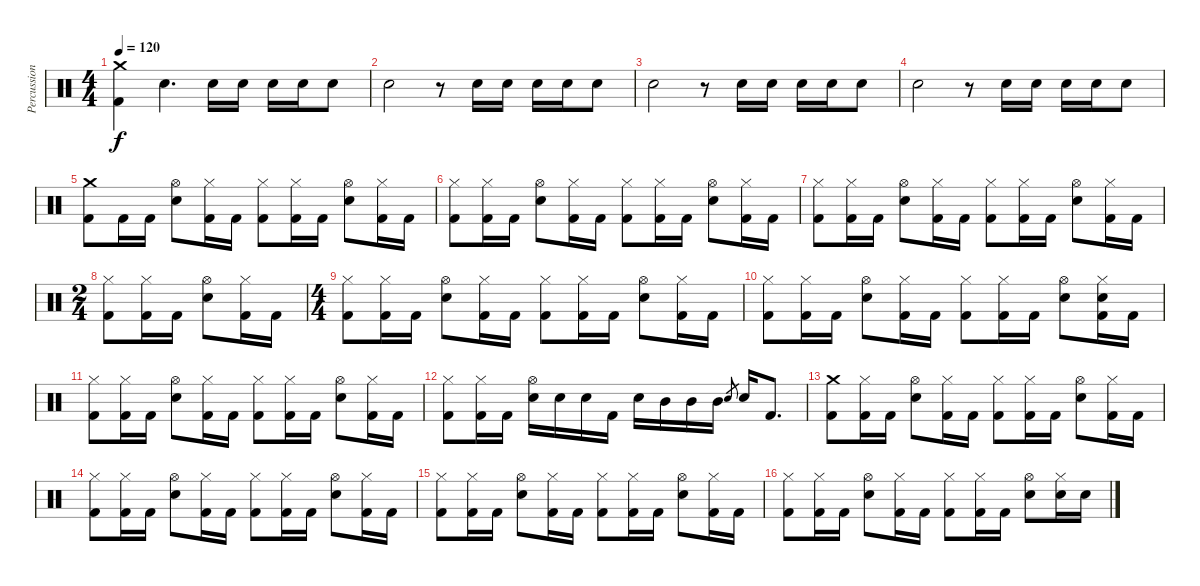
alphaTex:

\track ("Percussions" "Percussion") {instrument percussion}
\staff {score}
\articulation defaults
\ts (4 4)
\tempo 120
\clef neutral
\ks c
("Crash medium (hit)" "Kick (hit) 2").4{dy f} "Electric Snare (hit)".4{d} "Electric Snare (hit)".16 "Electric Snare (hit)".16 "Electric Snare (hit)".16 "Electric Snare (hit)".16 "Electric Snare (hit)".8 |
"Electric Snare (hit)".2 r.8 "Electric Snare (hit)".16 "Electric Snare (hit)".16 "Electric Snare (hit)".16 "Electric Snare (hit)".16 "Electric Snare (hit)".8 |
"Electric Snare (hit)".2 r.8 "Electric Snare (hit)".16 "Electric Snare (hit)".16 "Electric Snare (hit)".16 "Electric Snare (hit)".16 "Electric Snare (hit)".8 |
"Electric Snare (hit)".2 r.8 "Electric Snare (hit)".16 "Electric Snare (hit)".16 "Electric Snare (hit)".16 "Electric Snare (hit)".16 "Electric Snare (hit)".8 |
("Crash medium (hit)" "Kick (hit) 2").8 "Kick (hit) 2".16 "Kick (hit) 2".16 ("Hi-Hat (open)" "Electric Snare (hit)").8 ("Hi-Hat (closed)" "Kick (hit) 2").16 "Kick (hit) 2".16 ("Hi-Hat (closed)" "Kick (hit) 2").8 ("Hi-Hat (closed)" "Kick (hit) 2").16 "Kick (hit) 2".16 ("Hi-Hat (open)" "Electric Snare (hit)").8 ("Hi-Hat (closed)" "Kick (hit) 2").16 "Kick (hit) 2".16 |
("Hi-Hat (closed)" "Kick (hit) 2").8 ("Hi-Hat (closed)" "Kick (hit) 2").16 "Kick (hit) 2".16 ("Hi-Hat (open)" "Electric Snare (hit)").8 ("Hi-Hat (closed)" "Kick (hit) 2").16 "Kick (hit) 2".16 ("Hi-Hat (closed)" "Kick (hit) 2").8 ("Hi-Hat (closed)" "Kick (hit) 2").16 "Kick (hit) 2".16 ("Hi-Hat (open)" "Electric Snare (hit)").8 ("Hi-Hat (closed)" "Kick (hit) 2").16 "Kick (hit) 2".16 |
("Hi-Hat (closed)" "Kick (hit) 2").8 ("Hi-Hat (closed)" "Kick (hit) 2").16 "Kick (hit) 2".16 ("Hi-Hat (open)" "Electric Snare (hit)").8 ("Hi-Hat (closed)" "Kick (hit) 2").16 "Kick (hit) 2".16 ("Hi-Hat (closed)" "Kick (hit) 2").8 ("Hi-Hat (closed)" "Kick (hit) 2").16 "Kick (hit) 2".16 ("Hi-Hat (open)" "Electric Snare (hit)").8 ("Hi-Hat (closed)" "Kick (hit) 2").16 "Kick (hit) 2".16 |
\ts (2 4)
("Hi-Hat (closed)" "Kick (hit) 2").8 ("Hi-Hat (closed)" "Kick (hit) 2").16 "Kick (hit) 2".16 ("Hi-Hat (open)" "Electric Snare (hit)").8 ("Hi-Hat (closed)" "Kick (hit) 2").16 "Kick (hit) 2".16 |
\ts (4 4)
("Hi-Hat (closed)" "Kick (hit) 2").8 ("Hi-Hat (closed)" "Kick (hit) 2").16 "Kick (hit) 2".16 ("Hi-Hat (open)" "Electric Snare (hit)").8 ("Hi-Hat (closed)" "Kick (hit) 2").16 "Kick (hit) 2".16 ("Hi-Hat (closed)" "Kick (hit) 2").8 ("Hi-Hat (closed)" "Kick (hit) 2").16 "Kick (hit) 2".16 ("Hi-Hat (open)" "Electric Snare (hit)").8 ("Hi-Hat (closed)" "Kick (hit) 2").16 "Kick (hit) 2".16 |
("Hi-Hat (closed)" "Kick (hit) 2").8 ("Hi-Hat (closed)" "Kick (hit) 2").16 "Kick (hit) 2".16 ("Hi-Hat (open)" "Electric Snare (hit)").8 ("Hi-Hat (closed)" "Kick (hit) 2").16 "Kick (hit) 2".16 ("Hi-Hat (closed)" "Kick (hit) 2").8 ("Hi-Hat (closed)" "Kick (hit) 2").16 "Kick (hit) 2".16 ("Hi-Hat (open)" "Electric Snare (hit)").8 ("Hi-Hat (closed)" "Electric Snare (hit)" "Kick (hit) 2").16 "Kick (hit) 2".16 |
("Hi-Hat (closed)" "Kick (hit) 2").8 ("Hi-Hat (closed)" "Kick (hit) 2").16 "Kick (hit) 2".16 ("Hi-Hat (open)" "Electric Snare (hit)").8 ("Hi-Hat (closed)" "Kick (hit) 2").16 "Kick (hit) 2".16 ("Hi-Hat (closed)" "Kick (hit) 2").8 ("Hi-Hat (closed)" "Kick (hit) 2").16 "Kick (hit) 2".16 ("Hi-Hat (open)" "Electric Snare (hit)").8 ("Hi-Hat (closed)" "Kick (hit) 2").16 "Kick (hit) 2".16 |
("Hi-Hat (closed)" "Kick (hit) 2").8 ("Hi-Hat (closed)" "Kick (hit) 2").16 "Kick (hit) 2".16 ("Hi-Hat (open)" "Electric Snare (hit)").16 "Electric Snare (hit)".16 "Electric Snare (hit)".16 "Kick (hit) 2".16 "Electric Snare (hit)".16 "Mid Tom (hit)".16 "Mid Tom (hit)".16 "Mid Tom (hit)".16 "Electric Snare (hit)".8{gr} "Electric Snare (hit)".16 "Kick (hit) 2".8{d} |
("Crash medium (hit)" "Kick (hit) 2").8 ("Hi-Hat (closed)" "Kick (hit) 2").16 "Kick (hit) 2".16 ("Hi-Hat (open)" "Electric Snare (hit)").8 ("Hi-Hat (closed)" "Kick (hit) 2").16 "Kick (hit) 2".16 ("Hi-Hat (closed)" "Kick (hit) 2").8 ("Hi-Hat (closed)" "Kick (hit) 2").16 "Kick (hit) 2".16 ("Hi-Hat (open)" "Electric Snare (hit)").8 ("Hi-Hat (closed)" "Kick (hit) 2").16 "Kick (hit) 2".16 |
("Hi-Hat (closed)" "Kick (hit) 2").8 ("Hi-Hat (closed)" "Kick (hit) 2").16 "Kick (hit) 2".16 ("Hi-Hat (open)" "Electric Snare (hit)").8 ("Hi-Hat (closed)" "Kick (hit) 2").16 "Kick (hit) 2".16 ("Hi-Hat (closed)" "Kick (hit) 2").8 ("Hi-Hat (closed)" "Kick (hit) 2").16 "Kick (hit) 2".16 ("Hi-Hat (open)" "Electric Snare (hit)").8 ("Hi-Hat (closed)" "Kick (hit) 2").16 "Kick (hit) 2".16 |
("Hi-Hat (closed)" "Kick (hit) 2").8 ("Hi-Hat (closed)" "Kick (hit) 2").16 "Kick (hit) 2".16 ("Hi-Hat (open)" "Electric Snare (hit)").8 ("Hi-Hat (closed)" "Kick (hit) 2").16 "Kick (hit) 2".16 ("Hi-Hat (closed)" "Kick (hit) 2").8 ("Hi-Hat (closed)" "Kick (hit) 2").16 "Kick (hit) 2".16 ("Hi-Hat (open)" "Electric Snare (hit)").8 ("Hi-Hat (closed)" "Kick (hit) 2").16 "Kick (hit) 2".16 |
("Hi-Hat (closed)" "Kick (hit) 2").8 ("Hi-Hat (closed)" "Kick (hit) 2").16 "Kick (hit) 2".16 ("Hi-Hat (open)" "Electric Snare (hit)").8 ("Hi-Hat (closed)" "Kick (hit) 2").16 "Kick (hit) 2".16 ("Hi-Hat (closed)" "Kick (hit) 2").8 ("Hi-Hat (closed)" "Kick (hit) 2").16 "Kick (hit) 2".16 ("Hi-Hat (open)" "Electric Snare (hit)").8 ("Hi-Hat (closed)" "Electric Snare (hit)").16 "Electric Snare (hit)".16
